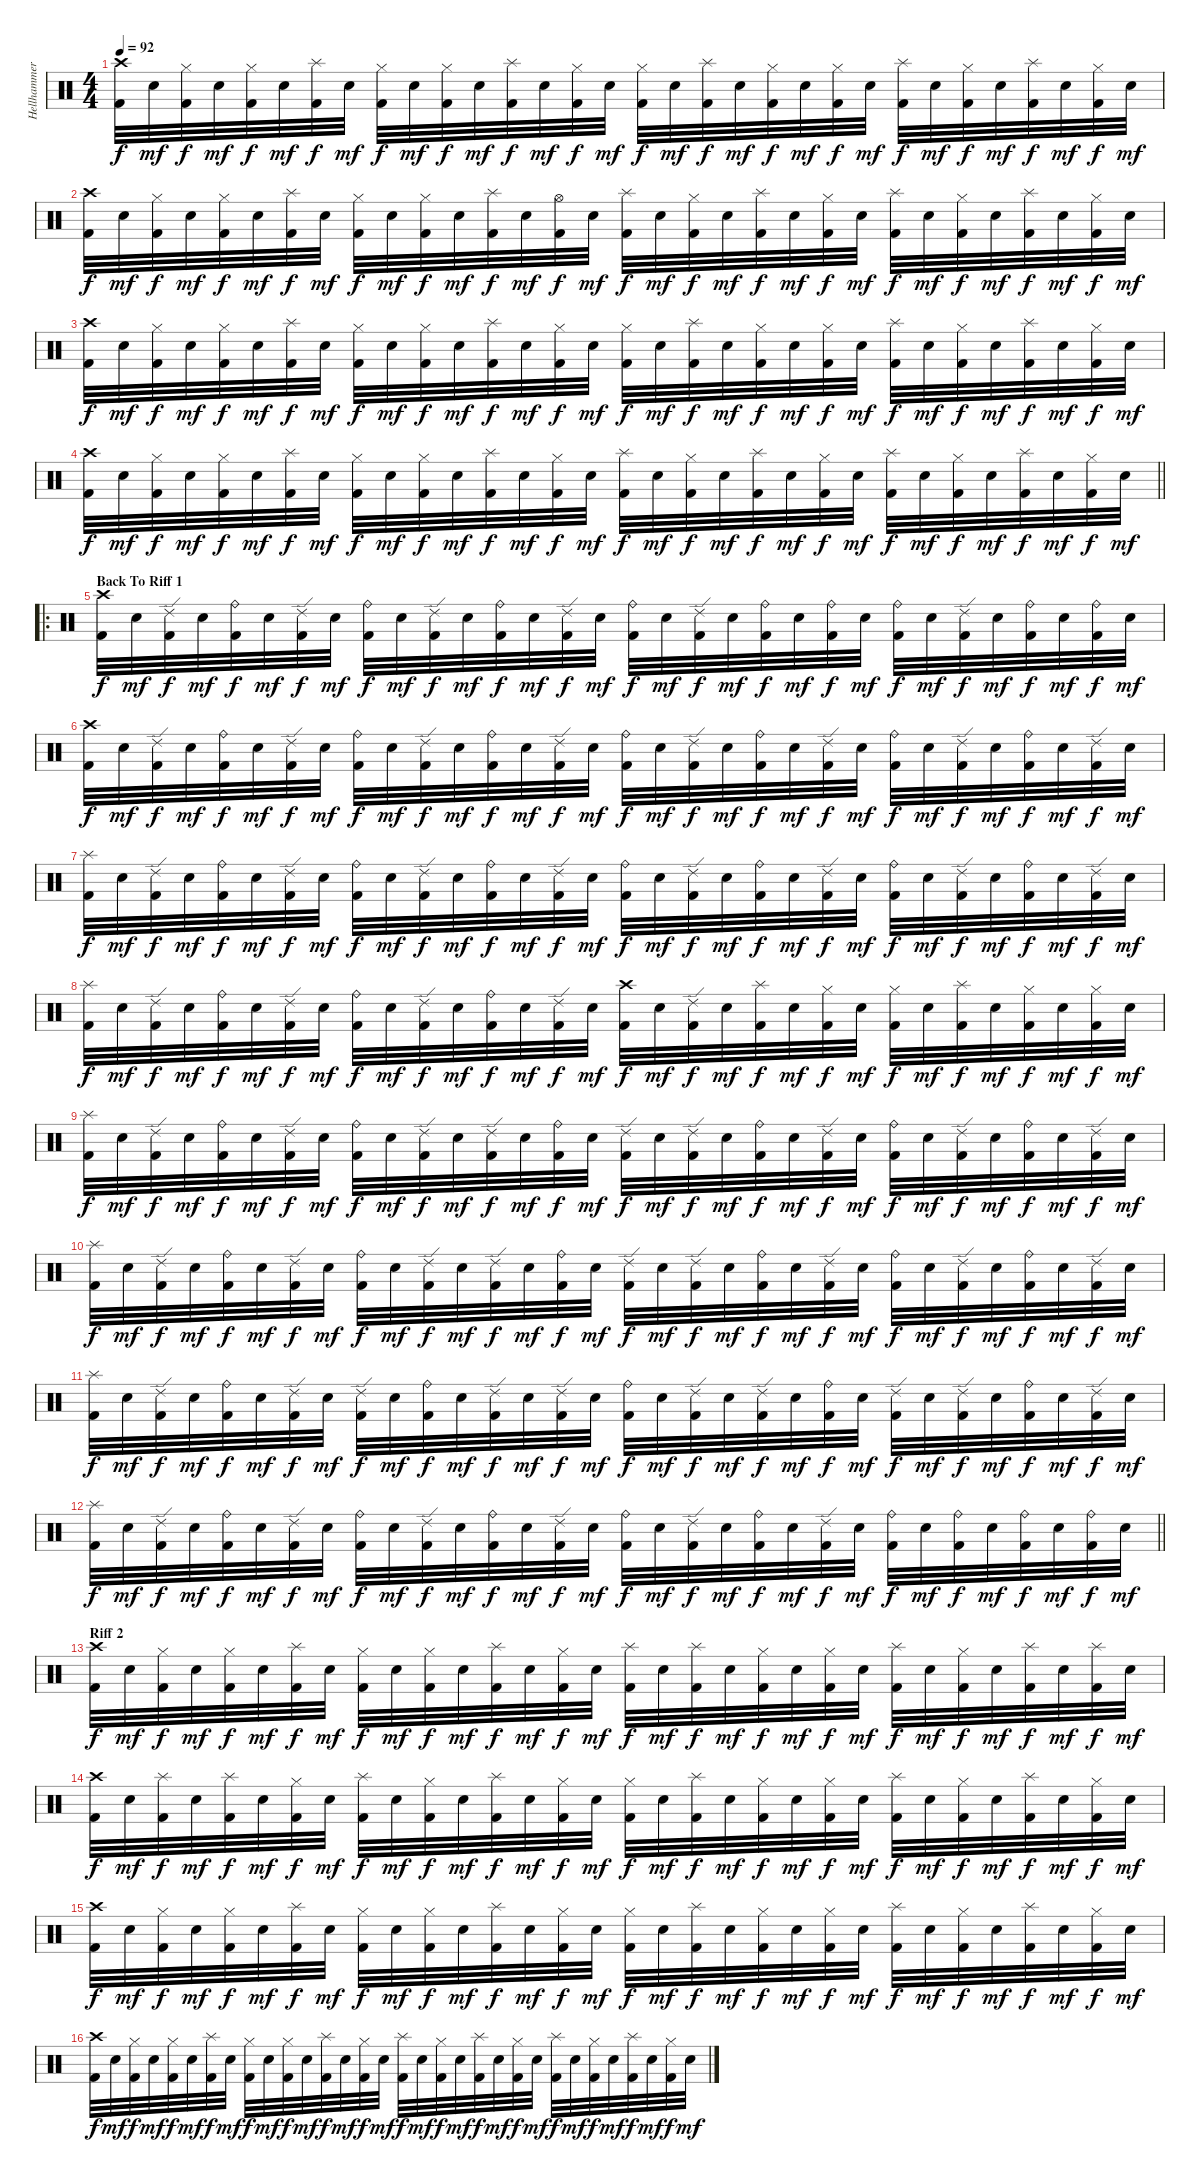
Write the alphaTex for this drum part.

\track ("Hellhammer" "Hellhammer") {instrument percussion}
\staff {score}
\articulation defaults
\ts (4 4)
\tempo 92
\clef neutral
\ks c
("Crash high (hit)" "Kick (hit) 2").32{dy f} "Electric Snare (hit)".32{dy mf} ("Hi-Hat (closed)" "Kick (hit) 2").32{dy f} "Electric Snare (hit)".32{dy mf} ("Hi-Hat (closed)" "Kick (hit) 2").32{dy f} "Electric Snare (hit)".32{dy mf} ("Splash (hit)" "Kick (hit) 2").32{dy f} "Electric Snare (hit)".32{dy mf} ("Hi-Hat (closed)" "Kick (hit) 2").32{dy f} "Electric Snare (hit)".32{dy mf} ("Hi-Hat (closed)" "Kick (hit) 2").32{dy f} "Electric Snare (hit)".32{dy mf} ("Splash (hit)" "Kick (hit) 2").32{dy f} "Electric Snare (hit)".32{dy mf} ("Hi-Hat (closed)" "Kick (hit) 2").32{dy f} "Electric Snare (hit)".32{dy mf} ("Hi-Hat (closed)" "Kick (hit) 2").32{dy f} "Electric Snare (hit)".32{dy mf} ("Splash (hit)" "Kick (hit) 2").32{dy f} "Electric Snare (hit)".32{dy mf} ("Hi-Hat (closed)" "Kick (hit) 2").32{dy f} "Electric Snare (hit)".32{dy mf} ("Hi-Hat (closed)" "Kick (hit) 2").32{dy f} "Electric Snare (hit)".32{dy mf} ("Splash (hit)" "Kick (hit) 2").32{dy f} "Electric Snare (hit)".32{dy mf} ("Hi-Hat (closed)" "Kick (hit) 2").32{dy f} "Electric Snare (hit)".32{dy mf} ("Splash (hit)" "Kick (hit) 2").32{dy f} "Electric Snare (hit)".32{dy mf} ("Hi-Hat (closed)" "Kick (hit) 2").32{dy f} "Electric Snare (hit)".32{dy mf} |
("Crash high (hit)" "Kick (hit) 2").32{dy f} "Electric Snare (hit)".32{dy mf} ("Hi-Hat (closed)" "Kick (hit) 2").32{dy f} "Electric Snare (hit)".32{dy mf} ("Hi-Hat (closed)" "Kick (hit) 2").32{dy f} "Electric Snare (hit)".32{dy mf} ("Splash (hit)" "Kick (hit) 2").32{dy f} "Electric Snare (hit)".32{dy mf} ("Hi-Hat (closed)" "Kick (hit) 2").32{dy f} "Electric Snare (hit)".32{dy mf} ("Hi-Hat (closed)" "Kick (hit) 2").32{dy f} "Electric Snare (hit)".32{dy mf} ("Splash (hit)" "Kick (hit) 2").32{dy f} "Electric Snare (hit)".32{dy mf} ("Hi-Hat (open)" "Kick (hit) 2").32{dy f} "Electric Snare (hit)".32{dy mf} ("Splash (hit)" "Kick (hit) 2").32{dy f} "Electric Snare (hit)".32{dy mf} ("Hi-Hat (closed)" "Kick (hit) 2").32{dy f} "Electric Snare (hit)".32{dy mf} ("Splash (hit)" "Kick (hit) 2").32{dy f} "Electric Snare (hit)".32{dy mf} ("Hi-Hat (closed)" "Kick (hit) 2").32{dy f} "Electric Snare (hit)".32{dy mf} ("Splash (hit)" "Kick (hit) 2").32{dy f} "Electric Snare (hit)".32{dy mf} ("Hi-Hat (closed)" "Kick (hit) 2").32{dy f} "Electric Snare (hit)".32{dy mf} ("Splash (hit)" "Kick (hit) 2").32{dy f} "Electric Snare (hit)".32{dy mf} ("Hi-Hat (closed)" "Kick (hit) 2").32{dy f} "Electric Snare (hit)".32{dy mf} |
("Crash high (hit)" "Kick (hit) 2").32{dy f} "Electric Snare (hit)".32{dy mf} ("Hi-Hat (closed)" "Kick (hit) 2").32{dy f} "Electric Snare (hit)".32{dy mf} ("Hi-Hat (closed)" "Kick (hit) 2").32{dy f} "Electric Snare (hit)".32{dy mf} ("Splash (hit)" "Kick (hit) 2").32{dy f} "Electric Snare (hit)".32{dy mf} ("Hi-Hat (closed)" "Kick (hit) 2").32{dy f} "Electric Snare (hit)".32{dy mf} ("Hi-Hat (closed)" "Kick (hit) 2").32{dy f} "Electric Snare (hit)".32{dy mf} ("Splash (hit)" "Kick (hit) 2").32{dy f} "Electric Snare (hit)".32{dy mf} ("Hi-Hat (closed)" "Kick (hit) 2").32{dy f} "Electric Snare (hit)".32{dy mf} ("Hi-Hat (closed)" "Kick (hit) 2").32{dy f} "Electric Snare (hit)".32{dy mf} ("Splash (hit)" "Kick (hit) 2").32{dy f} "Electric Snare (hit)".32{dy mf} ("Hi-Hat (closed)" "Kick (hit) 2").32{dy f} "Electric Snare (hit)".32{dy mf} ("Hi-Hat (closed)" "Kick (hit) 2").32{dy f} "Electric Snare (hit)".32{dy mf} ("Splash (hit)" "Kick (hit) 2").32{dy f} "Electric Snare (hit)".32{dy mf} ("Hi-Hat (closed)" "Kick (hit) 2").32{dy f} "Electric Snare (hit)".32{dy mf} ("Splash (hit)" "Kick (hit) 2").32{dy f} "Electric Snare (hit)".32{dy mf} ("Hi-Hat (closed)" "Kick (hit) 2").32{dy f} "Electric Snare (hit)".32{dy mf} |
\barLineRight lightlight
("Crash high (hit)" "Kick (hit) 2").32{dy f} "Electric Snare (hit)".32{dy mf} ("Hi-Hat (closed)" "Kick (hit) 2").32{dy f} "Electric Snare (hit)".32{dy mf} ("Hi-Hat (closed)" "Kick (hit) 2").32{dy f} "Electric Snare (hit)".32{dy mf} ("Splash (hit)" "Kick (hit) 2").32{dy f} "Electric Snare (hit)".32{dy mf} ("Hi-Hat (closed)" "Kick (hit) 2").32{dy f} "Electric Snare (hit)".32{dy mf} ("Hi-Hat (closed)" "Kick (hit) 2").32{dy f} "Electric Snare (hit)".32{dy mf} ("Splash (hit)" "Kick (hit) 2").32{dy f} "Electric Snare (hit)".32{dy mf} ("Hi-Hat (closed)" "Kick (hit) 2").32{dy f} "Electric Snare (hit)".32{dy mf} ("Splash (hit)" "Kick (hit) 2").32{dy f} "Electric Snare (hit)".32{dy mf} ("Hi-Hat (closed)" "Kick (hit) 2").32{dy f} "Electric Snare (hit)".32{dy mf} ("Splash (hit)" "Kick (hit) 2").32{dy f} "Electric Snare (hit)".32{dy mf} ("Hi-Hat (closed)" "Kick (hit) 2").32{dy f} "Electric Snare (hit)".32{dy mf} ("Splash (hit)" "Kick (hit) 2").32{dy f} "Electric Snare (hit)".32{dy mf} ("Hi-Hat (closed)" "Kick (hit) 2").32{dy f} "Electric Snare (hit)".32{dy mf} ("Splash (hit)" "Kick (hit) 2").32{dy f} "Electric Snare (hit)".32{dy mf} ("Hi-Hat (closed)" "Kick (hit) 2").32{dy f} "Electric Snare (hit)".32{dy mf} |
\ro
\section ("" "Back To Riff 1")
("Crash high (hit)" "Kick (hit) 2").32{dy f} "Electric Snare (hit)".32{dy mf} ("Ride (edge) 2" "Kick (hit) 2").32{dy f} "Electric Snare (hit)".32{dy mf} ("Ride (bell)" "Kick (hit) 2").32{dy f} "Electric Snare (hit)".32{dy mf} ("Ride (edge) 2" "Kick (hit) 2").32{dy f} "Electric Snare (hit)".32{dy mf} ("Ride (bell)" "Kick (hit) 2").32{dy f} "Electric Snare (hit)".32{dy mf} ("Ride (edge) 2" "Kick (hit) 2").32{dy f} "Electric Snare (hit)".32{dy mf} ("Ride (bell)" "Kick (hit) 2").32{dy f} "Electric Snare (hit)".32{dy mf} ("Ride (edge) 2" "Kick (hit) 2").32{dy f} "Electric Snare (hit)".32{dy mf} ("Ride (bell)" "Kick (hit) 2").32{dy f} "Electric Snare (hit)".32{dy mf} ("Ride (edge) 2" "Kick (hit) 2").32{dy f} "Electric Snare (hit)".32{dy mf} ("Ride (bell)" "Kick (hit) 2").32{dy f} "Electric Snare (hit)".32{dy mf} ("Ride (bell)" "Kick (hit) 2").32{dy f} "Electric Snare (hit)".32{dy mf} ("Ride (bell)" "Kick (hit) 2").32{dy f} "Electric Snare (hit)".32{dy mf} ("Ride (edge) 2" "Kick (hit) 2").32{dy f} "Electric Snare (hit)".32{dy mf} ("Ride (bell)" "Kick (hit) 2").32{dy f} "Electric Snare (hit)".32{dy mf} ("Ride (bell)" "Kick (hit) 2").32{dy f} "Electric Snare (hit)".32{dy mf} |
("Crash high (hit)" "Kick (hit) 2").32{dy f} "Electric Snare (hit)".32{dy mf} ("Ride (edge) 2" "Kick (hit) 2").32{dy f} "Electric Snare (hit)".32{dy mf} ("Ride (bell)" "Kick (hit) 2").32{dy f} "Electric Snare (hit)".32{dy mf} ("Ride (edge) 2" "Kick (hit) 2").32{dy f} "Electric Snare (hit)".32{dy mf} ("Ride (bell)" "Kick (hit) 2").32{dy f} "Electric Snare (hit)".32{dy mf} ("Ride (edge) 2" "Kick (hit) 2").32{dy f} "Electric Snare (hit)".32{dy mf} ("Ride (bell)" "Kick (hit) 2").32{dy f} "Electric Snare (hit)".32{dy mf} ("Ride (edge) 2" "Kick (hit) 2").32{dy f} "Electric Snare (hit)".32{dy mf} ("Ride (bell)" "Kick (hit) 2").32{dy f} "Electric Snare (hit)".32{dy mf} ("Ride (edge) 2" "Kick (hit) 2").32{dy f} "Electric Snare (hit)".32{dy mf} ("Ride (bell)" "Kick (hit) 2").32{dy f} "Electric Snare (hit)".32{dy mf} ("Ride (edge) 2" "Kick (hit) 2").32{dy f} "Electric Snare (hit)".32{dy mf} ("Ride (bell)" "Kick (hit) 2").32{dy f} "Electric Snare (hit)".32{dy mf} ("Ride (edge) 2" "Kick (hit) 2").32{dy f} "Electric Snare (hit)".32{dy mf} ("Ride (bell)" "Kick (hit) 2").32{dy f} "Electric Snare (hit)".32{dy mf} ("Ride (edge) 2" "Kick (hit) 2").32{dy f} "Electric Snare (hit)".32{dy mf} |
("Splash (hit)" "Kick (hit) 2").32{dy f} "Electric Snare (hit)".32{dy mf} ("Ride (edge) 2" "Kick (hit) 2").32{dy f} "Electric Snare (hit)".32{dy mf} ("Ride (bell)" "Kick (hit) 2").32{dy f} "Electric Snare (hit)".32{dy mf} ("Ride (edge) 2" "Kick (hit) 2").32{dy f} "Electric Snare (hit)".32{dy mf} ("Ride (bell)" "Kick (hit) 2").32{dy f} "Electric Snare (hit)".32{dy mf} ("Ride (edge) 2" "Kick (hit) 2").32{dy f} "Electric Snare (hit)".32{dy mf} ("Ride (bell)" "Kick (hit) 2").32{dy f} "Electric Snare (hit)".32{dy mf} ("Ride (edge) 2" "Kick (hit) 2").32{dy f} "Electric Snare (hit)".32{dy mf} ("Ride (bell)" "Kick (hit) 2").32{dy f} "Electric Snare (hit)".32{dy mf} ("Ride (edge) 2" "Kick (hit) 2").32{dy f} "Electric Snare (hit)".32{dy mf} ("Ride (bell)" "Kick (hit) 2").32{dy f} "Electric Snare (hit)".32{dy mf} ("Ride (edge) 2" "Kick (hit) 2").32{dy f} "Electric Snare (hit)".32{dy mf} ("Ride (bell)" "Kick (hit) 2").32{dy f} "Electric Snare (hit)".32{dy mf} ("Ride (edge) 2" "Kick (hit) 2").32{dy f} "Electric Snare (hit)".32{dy mf} ("Ride (bell)" "Kick (hit) 2").32{dy f} "Electric Snare (hit)".32{dy mf} ("Ride (edge) 2" "Kick (hit) 2").32{dy f} "Electric Snare (hit)".32{dy mf} |
("Splash (hit)" "Kick (hit) 2").32{dy f} "Electric Snare (hit)".32{dy mf} ("Ride (edge) 2" "Kick (hit) 2").32{dy f} "Electric Snare (hit)".32{dy mf} ("Ride (bell)" "Kick (hit) 2").32{dy f} "Electric Snare (hit)".32{dy mf} ("Ride (edge) 2" "Kick (hit) 2").32{dy f} "Electric Snare (hit)".32{dy mf} ("Ride (bell)" "Kick (hit) 2").32{dy f} "Electric Snare (hit)".32{dy mf} ("Ride (edge) 2" "Kick (hit) 2").32{dy f} "Electric Snare (hit)".32{dy mf} ("Ride (bell)" "Kick (hit) 2").32{dy f} "Electric Snare (hit)".32{dy mf} ("Ride (edge) 2" "Kick (hit) 2").32{dy f} "Electric Snare (hit)".32{dy mf} ("Crash high (hit)" "Kick (hit) 2").32{dy f} "Electric Snare (hit)".32{dy mf} ("Ride (edge) 2" "Kick (hit) 2").32{dy f} "Electric Snare (hit)".32{dy mf} ("Splash (hit)" "Kick (hit) 2").32{dy f} "Electric Snare (hit)".32{dy mf} ("Hi-Hat (closed)" "Kick (hit) 2").32{dy f} "Electric Snare (hit)".32{dy mf} ("Hi-Hat (closed)" "Kick (hit) 2").32{dy f} "Electric Snare (hit)".32{dy mf} ("Splash (hit)" "Kick (hit) 2").32{dy f} "Electric Snare (hit)".32{dy mf} ("Hi-Hat (closed)" "Kick (hit) 2").32{dy f} "Electric Snare (hit)".32{dy mf} ("Hi-Hat (closed)" "Kick (hit) 2").32{dy f} "Electric Snare (hit)".32{dy mf} |
("Splash (hit)" "Kick (hit) 2").32{dy f} "Electric Snare (hit)".32{dy mf} ("Ride (edge) 2" "Kick (hit) 2").32{dy f} "Electric Snare (hit)".32{dy mf} ("Ride (bell)" "Kick (hit) 2").32{dy f} "Electric Snare (hit)".32{dy mf} ("Ride (edge) 2" "Kick (hit) 2").32{dy f} "Electric Snare (hit)".32{dy mf} ("Ride (bell)" "Kick (hit) 2").32{dy f} "Electric Snare (hit)".32{dy mf} ("Ride (edge) 2" "Kick (hit) 2").32{dy f} "Electric Snare (hit)".32{dy mf} ("Ride (edge) 2" "Kick (hit) 2").32{dy f} "Electric Snare (hit)".32{dy mf} ("Ride (bell)" "Kick (hit) 2").32{dy f} "Electric Snare (hit)".32{dy mf} ("Ride (edge) 2" "Kick (hit) 2").32{dy f} "Electric Snare (hit)".32{dy mf} ("Ride (edge) 2" "Kick (hit) 2").32{dy f} "Electric Snare (hit)".32{dy mf} ("Ride (bell)" "Kick (hit) 2").32{dy f} "Electric Snare (hit)".32{dy mf} ("Ride (edge) 2" "Kick (hit) 2").32{dy f} "Electric Snare (hit)".32{dy mf} ("Ride (bell)" "Kick (hit) 2").32{dy f} "Electric Snare (hit)".32{dy mf} ("Ride (edge) 2" "Kick (hit) 2").32{dy f} "Electric Snare (hit)".32{dy mf} ("Ride (bell)" "Kick (hit) 2").32{dy f} "Electric Snare (hit)".32{dy mf} ("Ride (edge) 2" "Kick (hit) 2").32{dy f} "Electric Snare (hit)".32{dy mf} |
("Splash (hit)" "Kick (hit) 2").32{dy f} "Electric Snare (hit)".32{dy mf} ("Ride (edge) 2" "Kick (hit) 2").32{dy f} "Electric Snare (hit)".32{dy mf} ("Ride (bell)" "Kick (hit) 2").32{dy f} "Electric Snare (hit)".32{dy mf} ("Ride (edge) 2" "Kick (hit) 2").32{dy f} "Electric Snare (hit)".32{dy mf} ("Ride (bell)" "Kick (hit) 2").32{dy f} "Electric Snare (hit)".32{dy mf} ("Ride (edge) 2" "Kick (hit) 2").32{dy f} "Electric Snare (hit)".32{dy mf} ("Ride (edge) 2" "Kick (hit) 2").32{dy f} "Electric Snare (hit)".32{dy mf} ("Ride (bell)" "Kick (hit) 2").32{dy f} "Electric Snare (hit)".32{dy mf} ("Ride (edge) 2" "Kick (hit) 2").32{dy f} "Electric Snare (hit)".32{dy mf} ("Ride (edge) 2" "Kick (hit) 2").32{dy f} "Electric Snare (hit)".32{dy mf} ("Ride (bell)" "Kick (hit) 2").32{dy f} "Electric Snare (hit)".32{dy mf} ("Ride (edge) 2" "Kick (hit) 2").32{dy f} "Electric Snare (hit)".32{dy mf} ("Ride (bell)" "Kick (hit) 2").32{dy f} "Electric Snare (hit)".32{dy mf} ("Ride (edge) 2" "Kick (hit) 2").32{dy f} "Electric Snare (hit)".32{dy mf} ("Ride (bell)" "Kick (hit) 2").32{dy f} "Electric Snare (hit)".32{dy mf} ("Ride (edge) 2" "Kick (hit) 2").32{dy f} "Electric Snare (hit)".32{dy mf} |
("Splash (hit)" "Kick (hit) 2").32{dy f} "Electric Snare (hit)".32{dy mf} ("Ride (edge) 2" "Kick (hit) 2").32{dy f} "Electric Snare (hit)".32{dy mf} ("Ride (bell)" "Kick (hit) 2").32{dy f} "Electric Snare (hit)".32{dy mf} ("Ride (edge) 2" "Kick (hit) 2").32{dy f} "Electric Snare (hit)".32{dy mf} ("Ride (edge) 2" "Kick (hit) 2").32{dy f} "Electric Snare (hit)".32{dy mf} ("Ride (bell)" "Kick (hit) 2").32{dy f} "Electric Snare (hit)".32{dy mf} ("Ride (edge) 2" "Kick (hit) 2").32{dy f} "Electric Snare (hit)".32{dy mf} ("Ride (edge) 2" "Kick (hit) 2").32{dy f} "Electric Snare (hit)".32{dy mf} ("Ride (bell)" "Kick (hit) 2").32{dy f} "Electric Snare (hit)".32{dy mf} ("Ride (edge) 2" "Kick (hit) 2").32{dy f} "Electric Snare (hit)".32{dy mf} ("Ride (edge) 2" "Kick (hit) 2").32{dy f} "Electric Snare (hit)".32{dy mf} ("Ride (bell)" "Kick (hit) 2").32{dy f} "Electric Snare (hit)".32{dy mf} ("Ride (edge) 2" "Kick (hit) 2").32{dy f} "Electric Snare (hit)".32{dy mf} ("Ride (edge) 2" "Kick (hit) 2").32{dy f} "Electric Snare (hit)".32{dy mf} ("Ride (bell)" "Kick (hit) 2").32{dy f} "Electric Snare (hit)".32{dy mf} ("Ride (edge) 2" "Kick (hit) 2").32{dy f} "Electric Snare (hit)".32{dy mf} |
\barLineRight lightlight
("Splash (hit)" "Kick (hit) 2").32{dy f} "Electric Snare (hit)".32{dy mf} ("Ride (edge) 2" "Kick (hit) 2").32{dy f} "Electric Snare (hit)".32{dy mf} ("Ride (bell)" "Kick (hit) 2").32{dy f} "Electric Snare (hit)".32{dy mf} ("Ride (edge) 2" "Kick (hit) 2").32{dy f} "Electric Snare (hit)".32{dy mf} ("Ride (bell)" "Kick (hit) 2").32{dy f} "Electric Snare (hit)".32{dy mf} ("Ride (edge) 2" "Kick (hit) 2").32{dy f} "Electric Snare (hit)".32{dy mf} ("Ride (bell)" "Kick (hit) 2").32{dy f} "Electric Snare (hit)".32{dy mf} ("Ride (edge) 2" "Kick (hit) 2").32{dy f} "Electric Snare (hit)".32{dy mf} ("Ride (bell)" "Kick (hit) 2").32{dy f} "Electric Snare (hit)".32{dy mf} ("Ride (edge) 2" "Kick (hit) 2").32{dy f} "Electric Snare (hit)".32{dy mf} ("Ride (bell)" "Kick (hit) 2").32{dy f} "Electric Snare (hit)".32{dy mf} ("Ride (edge) 2" "Kick (hit) 2").32{dy f} "Electric Snare (hit)".32{dy mf} ("Ride (bell)" "Kick (hit) 2").32{dy f} "Electric Snare (hit)".32{dy mf} ("Ride (bell)" "Kick (hit) 2").32{dy f} "Electric Snare (hit)".32{dy mf} ("Ride (bell)" "Kick (hit) 2").32{dy f} "Electric Snare (hit)".32{dy mf} ("Ride (bell)" "Kick (hit) 2").32{dy f} "Electric Snare (hit)".32{dy mf} |
\section ("" "Riff 2")
("Crash high (hit)" "Kick (hit) 2").32{dy f} "Electric Snare (hit)".32{dy mf} ("Hi-Hat (closed)" "Kick (hit) 2").32{dy f} "Electric Snare (hit)".32{dy mf} ("Hi-Hat (closed)" "Kick (hit) 2").32{dy f} "Electric Snare (hit)".32{dy mf} ("Splash (hit)" "Kick (hit) 2").32{dy f} "Electric Snare (hit)".32{dy mf} ("Hi-Hat (closed)" "Kick (hit) 2").32{dy f} "Electric Snare (hit)".32{dy mf} ("Hi-Hat (closed)" "Kick (hit) 2").32{dy f} "Electric Snare (hit)".32{dy mf} ("Splash (hit)" "Kick (hit) 2").32{dy f} "Electric Snare (hit)".32{dy mf} ("Hi-Hat (closed)" "Kick (hit) 2").32{dy f} "Electric Snare (hit)".32{dy mf} ("Splash (hit)" "Kick (hit) 2").32{dy f} "Electric Snare (hit)".32{dy mf} ("Splash (hit)" "Kick (hit) 2").32{dy f} "Electric Snare (hit)".32{dy mf} ("Hi-Hat (closed)" "Kick (hit) 2").32{dy f} "Electric Snare (hit)".32{dy mf} ("Hi-Hat (closed)" "Kick (hit) 2").32{dy f} "Electric Snare (hit)".32{dy mf} ("Splash (hit)" "Kick (hit) 2").32{dy f} "Electric Snare (hit)".32{dy mf} ("Hi-Hat (closed)" "Kick (hit) 2").32{dy f} "Electric Snare (hit)".32{dy mf} ("Splash (hit)" "Kick (hit) 2").32{dy f} "Electric Snare (hit)".32{dy mf} ("Splash (hit)" "Kick (hit) 2").32{dy f} "Electric Snare (hit)".32{dy mf} |
("Crash high (hit)" "Kick (hit) 2").32{dy f} "Electric Snare (hit)".32{dy mf} ("Splash (hit)" "Kick (hit) 2").32{dy f} "Electric Snare (hit)".32{dy mf} ("Splash (hit)" "Kick (hit) 2").32{dy f} "Electric Snare (hit)".32{dy mf} ("Hi-Hat (closed)" "Kick (hit) 2").32{dy f} "Electric Snare (hit)".32{dy mf} ("Splash (hit)" "Kick (hit) 2").32{dy f} "Electric Snare (hit)".32{dy mf} ("Hi-Hat (closed)" "Kick (hit) 2").32{dy f} "Electric Snare (hit)".32{dy mf} ("Splash (hit)" "Kick (hit) 2").32{dy f} "Electric Snare (hit)".32{dy mf} ("Hi-Hat (closed)" "Kick (hit) 2").32{dy f} "Electric Snare (hit)".32{dy mf} ("Hi-Hat (closed)" "Kick (hit) 2").32{dy f} "Electric Snare (hit)".32{dy mf} ("Splash (hit)" "Kick (hit) 2").32{dy f} "Electric Snare (hit)".32{dy mf} ("Hi-Hat (closed)" "Kick (hit) 2").32{dy f} "Electric Snare (hit)".32{dy mf} ("Hi-Hat (closed)" "Kick (hit) 2").32{dy f} "Electric Snare (hit)".32{dy mf} ("Splash (hit)" "Kick (hit) 2").32{dy f} "Electric Snare (hit)".32{dy mf} ("Hi-Hat (closed)" "Kick (hit) 2").32{dy f} "Electric Snare (hit)".32{dy mf} ("Splash (hit)" "Kick (hit) 2").32{dy f} "Electric Snare (hit)".32{dy mf} ("Hi-Hat (closed)" "Kick (hit) 2").32{dy f} "Electric Snare (hit)".32{dy mf} |
("Crash high (hit)" "Kick (hit) 2").32{dy f} "Electric Snare (hit)".32{dy mf} ("Hi-Hat (closed)" "Kick (hit) 2").32{dy f} "Electric Snare (hit)".32{dy mf} ("Hi-Hat (closed)" "Kick (hit) 2").32{dy f} "Electric Snare (hit)".32{dy mf} ("Splash (hit)" "Kick (hit) 2").32{dy f} "Electric Snare (hit)".32{dy mf} ("Hi-Hat (closed)" "Kick (hit) 2").32{dy f} "Electric Snare (hit)".32{dy mf} ("Hi-Hat (closed)" "Kick (hit) 2").32{dy f} "Electric Snare (hit)".32{dy mf} ("Splash (hit)" "Kick (hit) 2").32{dy f} "Electric Snare (hit)".32{dy mf} ("Hi-Hat (closed)" "Kick (hit) 2").32{dy f} "Electric Snare (hit)".32{dy mf} ("Hi-Hat (closed)" "Kick (hit) 2").32{dy f} "Electric Snare (hit)".32{dy mf} ("Splash (hit)" "Kick (hit) 2").32{dy f} "Electric Snare (hit)".32{dy mf} ("Hi-Hat (closed)" "Kick (hit) 2").32{dy f} "Electric Snare (hit)".32{dy mf} ("Hi-Hat (closed)" "Kick (hit) 2").32{dy f} "Electric Snare (hit)".32{dy mf} ("Splash (hit)" "Kick (hit) 2").32{dy f} "Electric Snare (hit)".32{dy mf} ("Hi-Hat (closed)" "Kick (hit) 2").32{dy f} "Electric Snare (hit)".32{dy mf} ("Splash (hit)" "Kick (hit) 2").32{dy f} "Electric Snare (hit)".32{dy mf} ("Hi-Hat (closed)" "Kick (hit) 2").32{dy f} "Electric Snare (hit)".32{dy mf} |
("Crash high (hit)" "Kick (hit) 2").32{dy f} "Electric Snare (hit)".32{dy mf} ("Hi-Hat (closed)" "Kick (hit) 2").32{dy f} "Electric Snare (hit)".32{dy mf} ("Hi-Hat (closed)" "Kick (hit) 2").32{dy f} "Electric Snare (hit)".32{dy mf} ("Splash (hit)" "Kick (hit) 2").32{dy f} "Electric Snare (hit)".32{dy mf} ("Hi-Hat (closed)" "Kick (hit) 2").32{dy f} "Electric Snare (hit)".32{dy mf} ("Hi-Hat (closed)" "Kick (hit) 2").32{dy f} "Electric Snare (hit)".32{dy mf} ("Splash (hit)" "Kick (hit) 2").32{dy f} "Electric Snare (hit)".32{dy mf} ("Hi-Hat (closed)" "Kick (hit) 2").32{dy f} "Electric Snare (hit)".32{dy mf} ("Splash (hit)" "Kick (hit) 2").32{dy f} "Electric Snare (hit)".32{dy mf} ("Hi-Hat (closed)" "Kick (hit) 2").32{dy f} "Electric Snare (hit)".32{dy mf} ("Splash (hit)" "Kick (hit) 2").32{dy f} "Electric Snare (hit)".32{dy mf} ("Hi-Hat (closed)" "Kick (hit) 2").32{dy f} "Electric Snare (hit)".32{dy mf} ("Splash (hit)" "Kick (hit) 2").32{dy f} "Electric Snare (hit)".32{dy mf} ("Hi-Hat (closed)" "Kick (hit) 2").32{dy f} "Electric Snare (hit)".32{dy mf} ("Splash (hit)" "Kick (hit) 2").32{dy f} "Electric Snare (hit)".32{dy mf} ("Hi-Hat (closed)" "Kick (hit) 2").32{dy f} "Electric Snare (hit)".32{dy mf}
